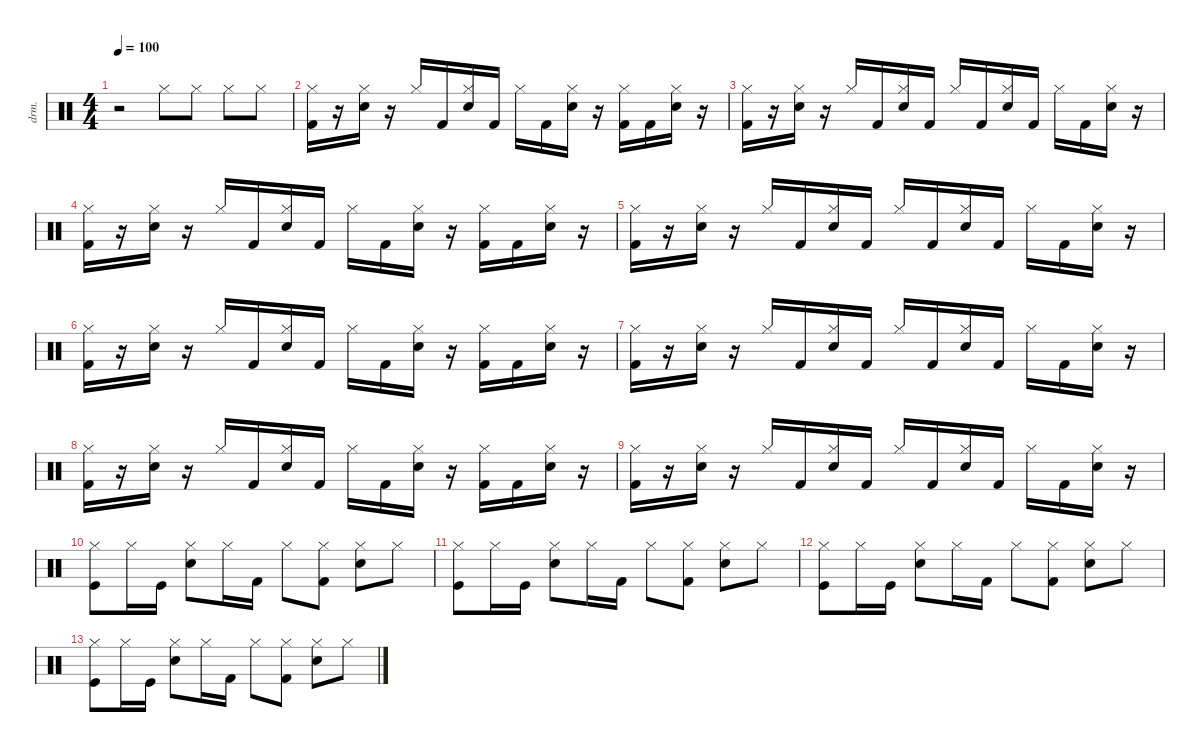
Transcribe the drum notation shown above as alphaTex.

\defaultSystemsLayout 4
\hideDynamics
\bracketExtendMode nobrackets
\otherSystemsTrackNameOrientation horizontal
\track ("Drumkit" "drm.") {instrument percussion}
\staff {score}
\articulation defaults
\ts (4 4)
\tempo 100
\clef neutral
\ks c
r.2{dy mf beam Down} "Hi-Hat (closed)".8{beam Down} "Hi-Hat (closed)".8{beam Down} "Hi-Hat (closed)".8{beam Down} "Hi-Hat (closed)".8{beam Down} |
("Hi-Hat (closed)" "Kick (hit) 2").16{beam Down} r.16{beam Down} ("Hi-Hat (closed)" "Snare (hit) 2").16{beam Down} r.16{beam Down} "Hi-Hat (closed)".16{beam Up} "Kick (hit) 2".16{beam Up} ("Hi-Hat (closed)" "Snare (hit) 2").16{beam Up} "Kick (hit) 2".16{beam Up} "Hi-Hat (closed)".16{beam Down} "Kick (hit) 2".16{beam Down} ("Hi-Hat (closed)" "Snare (hit) 2").16{beam Down} r.16{beam Down} ("Hi-Hat (closed)" "Kick (hit) 2").16{beam Down} "Kick (hit) 2".16{beam Down} ("Hi-Hat (closed)" "Snare (hit) 2").16{beam Down} r.16{beam Down} |
("Hi-Hat (closed)" "Kick (hit) 2").16{beam Down} r.16{beam Down} ("Hi-Hat (closed)" "Snare (hit) 2").16{beam Down} r.16{beam Down} "Hi-Hat (closed)".16{beam Up} "Kick (hit) 2".16{beam Up} ("Hi-Hat (closed)" "Snare (hit) 2").16{beam Up} "Kick (hit) 2".16{beam Up} "Hi-Hat (closed)".16{beam Up} "Kick (hit) 2".16{beam Up} ("Hi-Hat (closed)" "Snare (hit) 2").16{beam Up} "Kick (hit) 2".16{beam Up} "Hi-Hat (closed)".16{beam Down} "Kick (hit) 2".16{beam Down} ("Hi-Hat (closed)" "Snare (hit) 2").16{beam Down} r.16{beam Down} |
("Hi-Hat (closed)" "Kick (hit) 2").16{beam Down} r.16{beam Down} ("Hi-Hat (closed)" "Snare (hit) 2").16{beam Down} r.16{beam Down} "Hi-Hat (closed)".16{beam Up} "Kick (hit) 2".16{beam Up} ("Hi-Hat (closed)" "Snare (hit) 2").16{beam Up} "Kick (hit) 2".16{beam Up} "Hi-Hat (closed)".16{beam Down} "Kick (hit) 2".16{beam Down} ("Hi-Hat (closed)" "Snare (hit) 2").16{beam Down} r.16{beam Down} ("Hi-Hat (closed)" "Kick (hit) 2").16{beam Down} "Kick (hit) 2".16{beam Down} ("Hi-Hat (closed)" "Snare (hit) 2").16{beam Down} r.16{beam Down} |
("Hi-Hat (closed)" "Kick (hit) 2").16{beam Down} r.16{beam Down} ("Hi-Hat (closed)" "Snare (hit) 2").16{beam Down} r.16{beam Down} "Hi-Hat (closed)".16{beam Up} "Kick (hit) 2".16{beam Up} ("Hi-Hat (closed)" "Snare (hit) 2").16{beam Up} "Kick (hit) 2".16{beam Up} "Hi-Hat (closed)".16{beam Up} "Kick (hit) 2".16{beam Up} ("Hi-Hat (closed)" "Snare (hit) 2").16{beam Up} "Kick (hit) 2".16{beam Up} "Hi-Hat (closed)".16{beam Down} "Kick (hit) 2".16{beam Down} ("Hi-Hat (closed)" "Snare (hit) 2").16{beam Down} r.16{beam Down} |
("Hi-Hat (closed)" "Kick (hit) 2").16{beam Down} r.16{beam Down} ("Hi-Hat (closed)" "Snare (hit) 2").16{beam Down} r.16{beam Down} "Hi-Hat (closed)".16{beam Up} "Kick (hit) 2".16{beam Up} ("Hi-Hat (closed)" "Snare (hit) 2").16{beam Up} "Kick (hit) 2".16{beam Up} "Hi-Hat (closed)".16{beam Down} "Kick (hit) 2".16{beam Down} ("Hi-Hat (closed)" "Snare (hit) 2").16{beam Down} r.16{beam Down} ("Hi-Hat (closed)" "Kick (hit) 2").16{beam Down} "Kick (hit) 2".16{beam Down} ("Hi-Hat (closed)" "Snare (hit) 2").16{beam Down} r.16{beam Down} |
("Hi-Hat (closed)" "Kick (hit) 2").16{beam Down} r.16{beam Down} ("Hi-Hat (closed)" "Snare (hit) 2").16{beam Down} r.16{beam Down} "Hi-Hat (closed)".16{beam Up} "Kick (hit) 2".16{beam Up} ("Hi-Hat (closed)" "Snare (hit) 2").16{beam Up} "Kick (hit) 2".16{beam Up} "Hi-Hat (closed)".16{beam Up} "Kick (hit) 2".16{beam Up} ("Hi-Hat (closed)" "Snare (hit) 2").16{beam Up} "Kick (hit) 2".16{beam Up} "Hi-Hat (closed)".16{beam Down} "Kick (hit) 2".16{beam Down} ("Hi-Hat (closed)" "Snare (hit) 2").16{beam Down} r.16{beam Down} |
("Hi-Hat (closed)" "Kick (hit) 2").16{beam Down} r.16{beam Down} ("Hi-Hat (closed)" "Snare (hit) 2").16{beam Down} r.16{beam Down} "Hi-Hat (closed)".16{beam Up} "Kick (hit) 2".16{beam Up} ("Hi-Hat (closed)" "Snare (hit) 2").16{beam Up} "Kick (hit) 2".16{beam Up} "Hi-Hat (closed)".16{beam Down} "Kick (hit) 2".16{beam Down} ("Hi-Hat (closed)" "Snare (hit) 2").16{beam Down} r.16{beam Down} ("Hi-Hat (closed)" "Kick (hit) 2").16{beam Down} "Kick (hit) 2".16{beam Down} ("Hi-Hat (closed)" "Snare (hit) 2").16{beam Down} r.16{beam Down} |
("Hi-Hat (closed)" "Kick (hit) 2").16{beam Down} r.16{beam Down} ("Hi-Hat (closed)" "Snare (hit) 2").16{beam Down} r.16{beam Down} "Hi-Hat (closed)".16{beam Up} "Kick (hit) 2".16{beam Up} ("Hi-Hat (closed)" "Snare (hit) 2").16{beam Up} "Kick (hit) 2".16{beam Up} "Hi-Hat (closed)".16{beam Up} "Kick (hit) 2".16{beam Up} ("Hi-Hat (closed)" "Snare (hit) 2").16{beam Up} "Kick (hit) 2".16{beam Up} "Hi-Hat (closed)".16{beam Down} "Kick (hit) 2".16{beam Down} ("Hi-Hat (closed)" "Snare (hit) 2").16{beam Down} r.16{beam Down} |
("Kick (hit)" "Hi-Hat (closed)").8{beam Down} "Hi-Hat (closed)".16{beam Down} "Kick (hit)".16{beam Down} ("Snare (hit) 2" "Hi-Hat (closed)").8{beam Down} "Hi-Hat (closed)".16{beam Down} "Kick (hit) 2".16{beam Down} "Hi-Hat (closed)".8{beam Down} ("Kick (hit) 2" "Hi-Hat (closed)").8{beam Down} ("Hi-Hat (closed)" "Snare (hit) 2").8{beam Down} "Hi-Hat (closed)".8{beam Down} |
("Kick (hit)" "Hi-Hat (closed)").8{beam Down} "Hi-Hat (closed)".16{beam Down} "Kick (hit)".16{beam Down} ("Snare (hit) 2" "Hi-Hat (closed)").8{beam Down} "Hi-Hat (closed)".16{beam Down} "Kick (hit) 2".16{beam Down} "Hi-Hat (closed)".8{beam Down} ("Kick (hit) 2" "Hi-Hat (closed)").8{beam Down} ("Hi-Hat (closed)" "Snare (hit) 2").8{beam Down} "Hi-Hat (closed)".8{beam Down} |
("Kick (hit)" "Hi-Hat (closed)").8{beam Down} "Hi-Hat (closed)".16{beam Down} "Kick (hit)".16{beam Down} ("Snare (hit) 2" "Hi-Hat (closed)").8{beam Down} "Hi-Hat (closed)".16{beam Down} "Kick (hit) 2".16{beam Down} "Hi-Hat (closed)".8{beam Down} ("Kick (hit) 2" "Hi-Hat (closed)").8{beam Down} ("Hi-Hat (closed)" "Snare (hit) 2").8{beam Down} "Hi-Hat (closed)".8{beam Down} |
("Kick (hit)" "Hi-Hat (closed)").8{beam Down} "Hi-Hat (closed)".16{beam Down} "Kick (hit)".16{beam Down} ("Snare (hit) 2" "Hi-Hat (closed)").8{beam Down} "Hi-Hat (closed)".16{beam Down} "Kick (hit) 2".16{beam Down} "Hi-Hat (closed)".8{beam Down} ("Kick (hit) 2" "Hi-Hat (closed)").8{beam Down} ("Hi-Hat (closed)" "Snare (hit) 2").8{beam Down} "Hi-Hat (closed)".8{beam Down}
